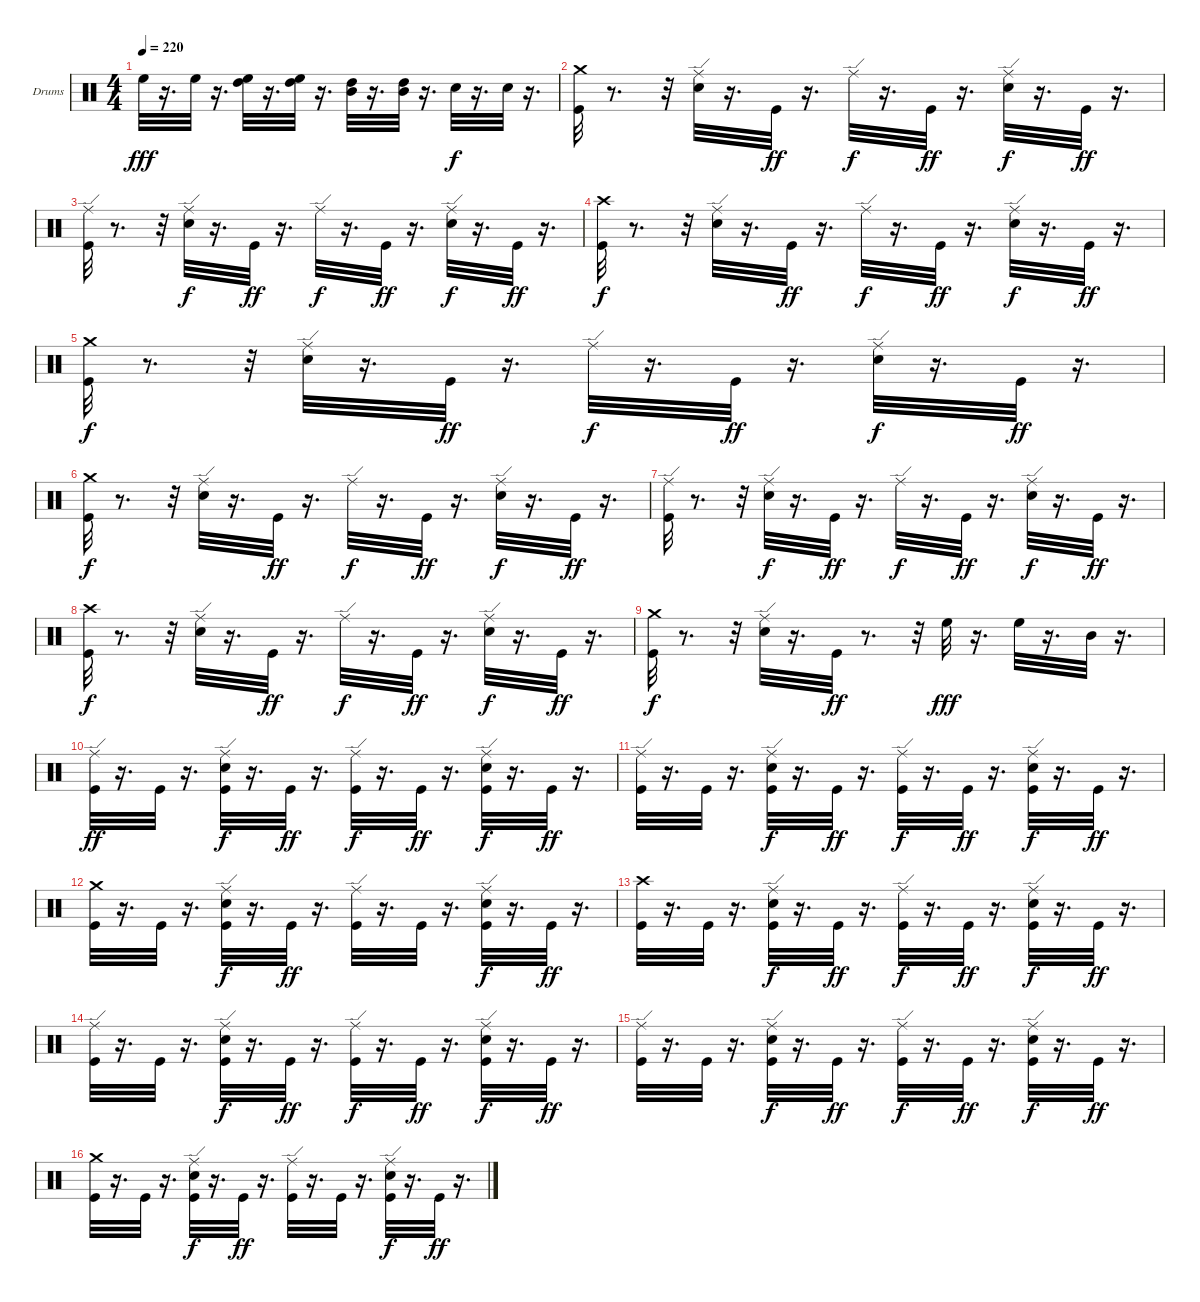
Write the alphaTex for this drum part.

\defaultSystemsLayout 4
\bracketExtendMode groupsimilarinstruments
\firstSystemTrackNameOrientation horizontal
\otherSystemsTrackNameOrientation horizontal
\track ("Дмитрий Кривенков" "Drums") {instrument percussion}
\staff {score}
\articulation defaults
\ts (4 4)
\tempo 220
\clef neutral
\ks c "High Floor Tom (hit)".32{dy fff}
r.16{d} "High Floor Tom (hit)".32 r.16{d} ("High Tom (hit)" "High Floor Tom (hit)").32 r.16{d} ("High Tom (hit)" "High Floor Tom (hit)").32 r.16{d} ("Mid Tom (hit)" "High Tom (hit)").32 r.16{d} ("Mid Tom (hit)" "High Tom (hit)").32 r.16{d} "Snare (hit) 2".32{dy f} r.16{d} "Snare (hit) 2".32 r.16{d} |
("Crash medium (hit)" "Kick (hit)").32 r.8{d} r.32 ("Ride (edge)" "Snare (hit) 2").32 r.16{d} "Kick (hit)".32{dy ff} r.16{d} "Ride (edge)".32{dy f} r.16{d} "Kick (hit)".32{dy ff} r.16{d} ("Ride (edge)" "Snare (hit) 2").32{dy f} r.16{d} "Kick (hit)".32{dy ff} r.16{d} |
("Kick (hit)" "Ride (edge)").32 r.8{d} r.32 ("Snare (hit) 2" "Ride (edge)").32{dy f} r.16{d} "Kick (hit)".32{dy ff} r.16{d} "Ride (edge)".32{dy f} r.16{d} "Kick (hit)".32{dy ff} r.16{d} ("Snare (hit) 2" "Ride (edge)").32{dy f} r.16{d} "Kick (hit)".32{dy ff} r.16{d} |
("Crash high (hit)" "Kick (hit)").32{dy f} r.8{d} r.32 ("Ride (edge)" "Snare (hit) 2").32 r.16{d} "Kick (hit)".32{dy ff} r.16{d} "Ride (edge)".32{dy f} r.16{d} "Kick (hit)".32{dy ff} r.16{d} ("Ride (edge)" "Snare (hit) 2").32{dy f} r.16{d} "Kick (hit)".32{dy ff} r.16{d} |
("Crash medium (hit)" "Kick (hit)").32{dy f} r.8{d} r.32 ("Ride (edge)" "Snare (hit) 2").32 r.16{d} "Kick (hit)".32{dy ff} r.16{d} "Ride (edge)".32{dy f} r.16{d} "Kick (hit)".32{dy ff} r.16{d} ("Ride (edge)" "Snare (hit) 2").32{dy f} r.16{d} "Kick (hit)".32{dy ff} r.16{d} |
("Crash medium (hit)" "Kick (hit)").32{dy f} r.8{d} r.32 ("Ride (edge)" "Snare (hit) 2").32 r.16{d} "Kick (hit)".32{dy ff} r.16{d} "Ride (edge)".32{dy f} r.16{d} "Kick (hit)".32{dy ff} r.16{d} ("Ride (edge)" "Snare (hit) 2").32{dy f} r.16{d} "Kick (hit)".32{dy ff} r.16{d} |
("Kick (hit)" "Ride (edge)").32 r.8{d} r.32 ("Snare (hit) 2" "Ride (edge)").32{dy f} r.16{d} "Kick (hit)".32{dy ff} r.16{d} "Ride (edge)".32{dy f} r.16{d} "Kick (hit)".32{dy ff} r.16{d} ("Snare (hit) 2" "Ride (edge)").32{dy f} r.16{d} "Kick (hit)".32{dy ff} r.16{d} |
("Crash high (hit)" "Kick (hit)").32{dy f} r.8{d} r.32 ("Ride (edge)" "Snare (hit) 2").32 r.16{d} "Kick (hit)".32{dy ff} r.16{d} "Ride (edge)".32{dy f} r.16{d} "Kick (hit)".32{dy ff} r.16{d} ("Ride (edge)" "Snare (hit) 2").32{dy f} r.16{d} "Kick (hit)".32{dy ff} r.16{d} |
("Crash medium (hit)" "Kick (hit)").32{dy f} r.8{d} r.32 ("Ride (edge)" "Snare (hit) 2").32 r.16{d} "Kick (hit)".32{dy ff} r.8{d} r.32 "High Floor Tom (hit)".32{dy fff} r.16{d} "High Floor Tom (hit)".32 r.16{d} "Mid Tom (hit)".32 r.16{d} |
("Kick (hit)" "Ride (edge)").32{dy ff} r.16{d} "Kick (hit)".32 r.16{d} ("Snare (hit) 2" "Kick (hit)" "Ride (edge)").32{dy f} r.16{d} "Kick (hit)".32{dy ff} r.16{d} ("Ride (edge)" "Kick (hit)").32{dy f} r.16{d} "Kick (hit)".32{dy ff} r.16{d} ("Snare (hit) 2" "Kick (hit)" "Ride (edge)").32{dy f} r.16{d} "Kick (hit)".32{dy ff} r.16{d} |
("Kick (hit)" "Ride (edge)").32 r.16{d} "Kick (hit)".32 r.16{d} ("Snare (hit) 2" "Kick (hit)" "Ride (edge)").32{dy f} r.16{d} "Kick (hit)".32{dy ff} r.16{d} ("Ride (edge)" "Kick (hit)").32{dy f} r.16{d} "Kick (hit)".32{dy ff} r.16{d} ("Snare (hit) 2" "Kick (hit)" "Ride (edge)").32{dy f} r.16{d} "Kick (hit)".32{dy ff} r.16{d} |
("Kick (hit)" "Crash medium (hit)").32 r.16{d} "Kick (hit)".32 r.16{d} ("Ride (edge)" "Snare (hit) 2" "Kick (hit)").32{dy f} r.16{d} "Kick (hit)".32{dy ff} r.16{d} ("Kick (hit)" "Ride (edge)").32 r.16{d} "Kick (hit)".32 r.16{d} ("Ride (edge)" "Snare (hit) 2" "Kick (hit)").32{dy f} r.16{d} "Kick (hit)".32{dy ff} r.16{d} |
("Kick (hit)" "Crash high (hit)").32 r.16{d} "Kick (hit)".32 r.16{d} ("Snare (hit) 2" "Kick (hit)" "Ride (edge)").32{dy f} r.16{d} "Kick (hit)".32{dy ff} r.16{d} ("Ride (edge)" "Kick (hit)").32{dy f} r.16{d} "Kick (hit)".32{dy ff} r.16{d} ("Snare (hit) 2" "Kick (hit)" "Ride (edge)").32{dy f} r.16{d} "Kick (hit)".32{dy ff} r.16{d} |
("Kick (hit)" "Ride (edge)").32 r.16{d} "Kick (hit)".32 r.16{d} ("Snare (hit) 2" "Kick (hit)" "Ride (edge)").32{dy f} r.16{d} "Kick (hit)".32{dy ff} r.16{d} ("Ride (edge)" "Kick (hit)").32{dy f} r.16{d} "Kick (hit)".32{dy ff} r.16{d} ("Snare (hit) 2" "Kick (hit)" "Ride (edge)").32{dy f} r.16{d} "Kick (hit)".32{dy ff} r.16{d} |
("Kick (hit)" "Ride (edge)").32 r.16{d} "Kick (hit)".32 r.16{d} ("Snare (hit) 2" "Kick (hit)" "Ride (edge)").32{dy f} r.16{d} "Kick (hit)".32{dy ff} r.16{d} ("Ride (edge)" "Kick (hit)").32{dy f} r.16{d} "Kick (hit)".32{dy ff} r.16{d} ("Snare (hit) 2" "Kick (hit)" "Ride (edge)").32{dy f} r.16{d} "Kick (hit)".32{dy ff} r.16{d} |
("Kick (hit)" "Crash medium (hit)").32 r.16{d} "Kick (hit)".32 r.16{d} ("Ride (edge)" "Snare (hit) 2" "Kick (hit)").32{dy f} r.16{d} "Kick (hit)".32{dy ff} r.16{d} ("Kick (hit)" "Ride (edge)").32 r.16{d} "Kick (hit)".32 r.16{d} ("Ride (edge)" "Snare (hit) 2" "Kick (hit)").32{dy f} r.16{d} "Kick (hit)".32{dy ff} r.16{d}
